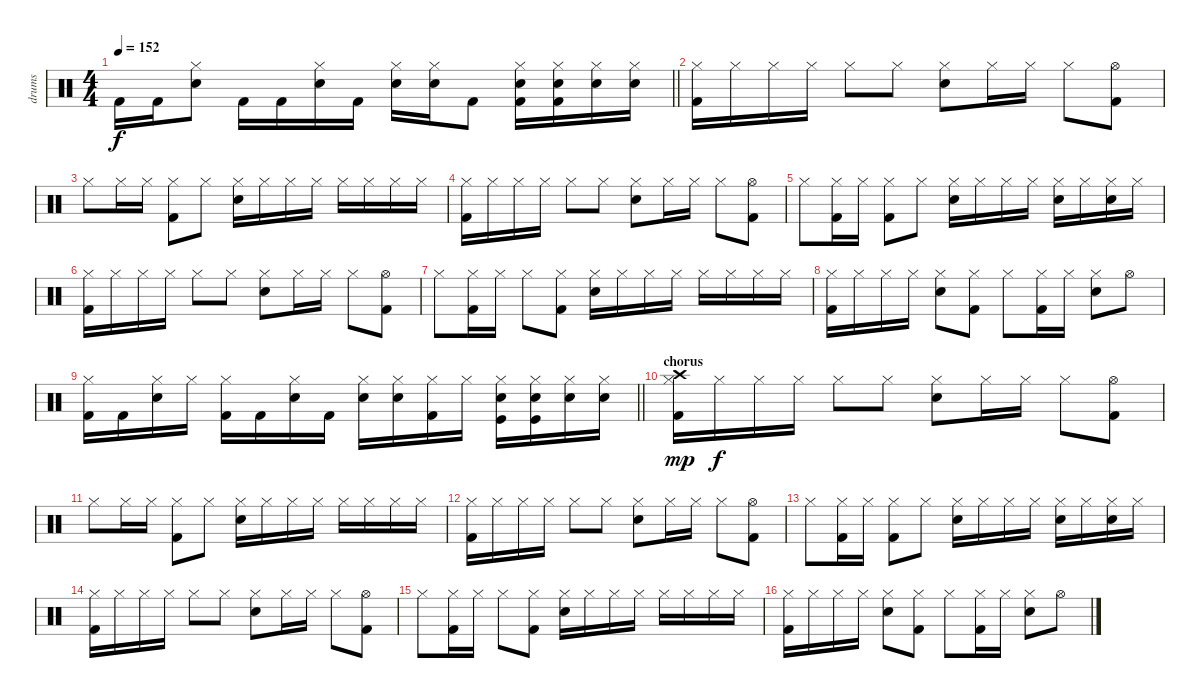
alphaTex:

\track ("drums" "drums") {instrument percussion}
\staff {score}
\articulation defaults
\ts (4 4)
\tempo 152
\clef neutral
\barLineRight lightlight
\ks c "Kick (hit) 2".16{dy f} "Kick (hit) 2".16
("Hi-Hat (closed)" "Snare (hit) 2").8 "Kick (hit) 2".16 "Kick (hit) 2".16 ("Hi-Hat (closed)" "Snare (hit) 2").16 "Kick (hit) 2".16 ("Hi-Hat (closed)" "Snare (hit) 2").16 ("Hi-Hat (closed)" "Snare (hit) 2").16 "Kick (hit) 2".8 ("Hi-Hat (closed)" "Snare (hit) 2" "Kick (hit) 2").16 ("Hi-Hat (closed)" "Snare (hit) 2" "Kick (hit) 2").16 ("Hi-Hat (closed)" "Snare (hit) 2").16 ("Hi-Hat (closed)" "Snare (hit) 2").16 |
("Hi-Hat (closed)" "Kick (hit) 2").16 "Hi-Hat (closed)".16 "Hi-Hat (closed)".16 "Hi-Hat (closed)".16 "Hi-Hat (closed)".8 "Hi-Hat (closed)".8 ("Snare (hit) 2" "Hi-Hat (closed)").8 "Hi-Hat (closed)".16 "Hi-Hat (closed)".16 "Hi-Hat (closed)".8 ("Hi-Hat (open)" "Kick (hit) 2").8 |
"Hi-Hat (closed)".8 "Hi-Hat (closed)".16 "Hi-Hat (closed)".16 ("Hi-Hat (closed)" "Kick (hit) 2").8 "Hi-Hat (closed)".8 ("Hi-Hat (closed)" "Snare (hit) 2").16 "Hi-Hat (closed)".16 "Hi-Hat (closed)".16 "Hi-Hat (closed)".16 "Hi-Hat (closed)".16 "Hi-Hat (closed)".16 "Hi-Hat (closed)".16 "Hi-Hat (closed)".16 |
("Hi-Hat (closed)" "Kick (hit) 2").16 "Hi-Hat (closed)".16 "Hi-Hat (closed)".16 "Hi-Hat (closed)".16 "Hi-Hat (closed)".8 "Hi-Hat (closed)".8 ("Snare (hit) 2" "Hi-Hat (closed)").8 "Hi-Hat (closed)".16 "Hi-Hat (closed)".16 "Hi-Hat (closed)".8 ("Hi-Hat (open)" "Kick (hit) 2").8 |
"Hi-Hat (closed)".8 ("Hi-Hat (closed)" "Kick (hit) 2").16 "Hi-Hat (closed)".16 ("Hi-Hat (closed)" "Kick (hit) 2").8 "Hi-Hat (closed)".8 ("Hi-Hat (closed)" "Snare (hit) 2").16 "Hi-Hat (closed)".16 "Hi-Hat (closed)".16 "Hi-Hat (closed)".16 ("Hi-Hat (closed)" "Snare (hit) 2").16 "Hi-Hat (closed)".16 ("Hi-Hat (closed)" "Snare (hit) 2").16 "Hi-Hat (closed)".16 |
("Hi-Hat (closed)" "Kick (hit) 2").16 "Hi-Hat (closed)".16 "Hi-Hat (closed)".16 "Hi-Hat (closed)".16 "Hi-Hat (closed)".8 "Hi-Hat (closed)".8 ("Snare (hit) 2" "Hi-Hat (closed)").8 "Hi-Hat (closed)".16 "Hi-Hat (closed)".16 "Hi-Hat (closed)".8 ("Hi-Hat (open)" "Kick (hit) 2").8 |
"Hi-Hat (closed)".8 ("Hi-Hat (closed)" "Kick (hit) 2").16 "Hi-Hat (closed)".16 "Hi-Hat (closed)".8 ("Hi-Hat (closed)" "Kick (hit) 2").8 ("Hi-Hat (closed)" "Snare (hit) 2").16 "Hi-Hat (closed)".16 "Hi-Hat (closed)".16 "Hi-Hat (closed)".16 "Hi-Hat (closed)".16 "Hi-Hat (closed)".16 "Hi-Hat (closed)".16 "Hi-Hat (closed)".16 |
("Hi-Hat (closed)" "Kick (hit) 2").16 "Hi-Hat (closed)".16 "Hi-Hat (closed)".16 "Hi-Hat (closed)".16 ("Hi-Hat (closed)" "Snare (hit) 2").8 ("Hi-Hat (closed)" "Kick (hit) 2").8 "Hi-Hat (closed)".8 ("Hi-Hat (closed)" "Kick (hit) 2").16 "Hi-Hat (closed)".16 ("Hi-Hat (closed)" "Snare (hit) 2").8 "Hi-Hat (open)".8 |
\barLineRight lightlight
("Hi-Hat (closed)" "Kick (hit) 2").16 "Kick (hit) 2".16 ("Hi-Hat (closed)" "Snare (hit) 2").16 "Hi-Hat (closed)".16 ("Hi-Hat (closed)" "Kick (hit) 2").16 "Kick (hit) 2".16 ("Hi-Hat (closed)" "Snare (hit) 2").16 "Kick (hit) 2".16 ("Hi-Hat (closed)" "Snare (hit) 2").16 ("Hi-Hat (closed)" "Snare (hit) 2").16 ("Hi-Hat (closed)" "Kick (hit) 2").16 "Hi-Hat (closed)".16 ("Hi-Hat (closed)" "Snare (hit) 2" "Kick (hit)").16 ("Hi-Hat (closed)" "Snare (hit) 2" "Kick (hit)").16 ("Hi-Hat (closed)" "Snare (hit) 2").16 ("Hi-Hat (closed)" "Snare (hit) 2").16 |
\section ("" "chorus")
("Hi-Hat (closed)" "Kick (hit) 2" "Crash high (hit)").16{dy mp} "Hi-Hat (closed)".16{dy f} "Hi-Hat (closed)".16 "Hi-Hat (closed)".16 "Hi-Hat (closed)".8 "Hi-Hat (closed)".8 ("Snare (hit) 2" "Hi-Hat (closed)").8 "Hi-Hat (closed)".16 "Hi-Hat (closed)".16 "Hi-Hat (closed)".8 ("Hi-Hat (open)" "Kick (hit) 2").8 |
"Hi-Hat (closed)".8 "Hi-Hat (closed)".16 "Hi-Hat (closed)".16 ("Hi-Hat (closed)" "Kick (hit) 2").8 "Hi-Hat (closed)".8 ("Hi-Hat (closed)" "Snare (hit) 2").16 "Hi-Hat (closed)".16 "Hi-Hat (closed)".16 "Hi-Hat (closed)".16 "Hi-Hat (closed)".16 "Hi-Hat (closed)".16 "Hi-Hat (closed)".16 "Hi-Hat (closed)".16 |
("Hi-Hat (closed)" "Kick (hit) 2").16 "Hi-Hat (closed)".16 "Hi-Hat (closed)".16 "Hi-Hat (closed)".16 "Hi-Hat (closed)".8 "Hi-Hat (closed)".8 ("Snare (hit) 2" "Hi-Hat (closed)").8 "Hi-Hat (closed)".16 "Hi-Hat (closed)".16 "Hi-Hat (closed)".8 ("Hi-Hat (open)" "Kick (hit) 2").8 |
"Hi-Hat (closed)".8 ("Hi-Hat (closed)" "Kick (hit) 2").16 "Hi-Hat (closed)".16 ("Hi-Hat (closed)" "Kick (hit) 2").8 "Hi-Hat (closed)".8 ("Hi-Hat (closed)" "Snare (hit) 2").16 "Hi-Hat (closed)".16 "Hi-Hat (closed)".16 "Hi-Hat (closed)".16 ("Hi-Hat (closed)" "Snare (hit) 2").16 "Hi-Hat (closed)".16 ("Hi-Hat (closed)" "Snare (hit) 2").16 "Hi-Hat (closed)".16 |
("Hi-Hat (closed)" "Kick (hit) 2").16 "Hi-Hat (closed)".16 "Hi-Hat (closed)".16 "Hi-Hat (closed)".16 "Hi-Hat (closed)".8 "Hi-Hat (closed)".8 ("Snare (hit) 2" "Hi-Hat (closed)").8 "Hi-Hat (closed)".16 "Hi-Hat (closed)".16 "Hi-Hat (closed)".8 ("Hi-Hat (open)" "Kick (hit) 2").8 |
"Hi-Hat (closed)".8 ("Hi-Hat (closed)" "Kick (hit) 2").16 "Hi-Hat (closed)".16 "Hi-Hat (closed)".8 ("Hi-Hat (closed)" "Kick (hit) 2").8 ("Hi-Hat (closed)" "Snare (hit) 2").16 "Hi-Hat (closed)".16 "Hi-Hat (closed)".16 "Hi-Hat (closed)".16 "Hi-Hat (closed)".16 "Hi-Hat (closed)".16 "Hi-Hat (closed)".16 "Hi-Hat (closed)".16 |
("Hi-Hat (closed)" "Kick (hit) 2").16 "Hi-Hat (closed)".16 "Hi-Hat (closed)".16 "Hi-Hat (closed)".16 ("Hi-Hat (closed)" "Snare (hit) 2").8 ("Hi-Hat (closed)" "Kick (hit) 2").8 "Hi-Hat (closed)".8 ("Hi-Hat (closed)" "Kick (hit) 2").16 "Hi-Hat (closed)".16 ("Hi-Hat (closed)" "Snare (hit) 2").8 "Hi-Hat (open)".8
